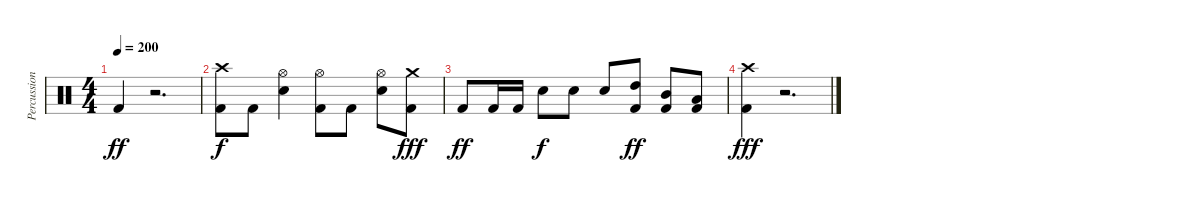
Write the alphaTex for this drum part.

\track ("Percussion" "Percussion") {instrument percussion}
\staff {score}
\articulation defaults
\ts (4 4)
\tempo 200
\clef neutral
\ks c "Kick (hit) 2".4{dy ff}
r.2{d} |
("Crash high (hit)" "Kick (hit) 2").8{dy f} "Kick (hit) 2".8 ("Hi-Hat (open)" "Snare (hit) 2").4 ("Hi-Hat (open)" "Kick (hit) 2").8 "Kick (hit) 2".8 ("Hi-Hat (open)" "Snare (hit) 2").8 ("Crash medium (hit)" "Kick (hit) 2").8{dy fff} |
"Kick (hit) 2".8{dy ff} "Kick (hit) 2".16 "Kick (hit) 2".16 "Snare (hit) 2".8{dy f} "Snare (hit) 2".8 "Snare (hit) 2".8 ("High Tom (hit)" "Kick (hit) 2").8{dy ff} ("Mid Tom (hit)" "Kick (hit) 2").8 ("Low Tom (hit)" "Kick (hit) 2").8 |
("Crash high (hit)" "Kick (hit) 2").4{dy fff} r.2{d}
